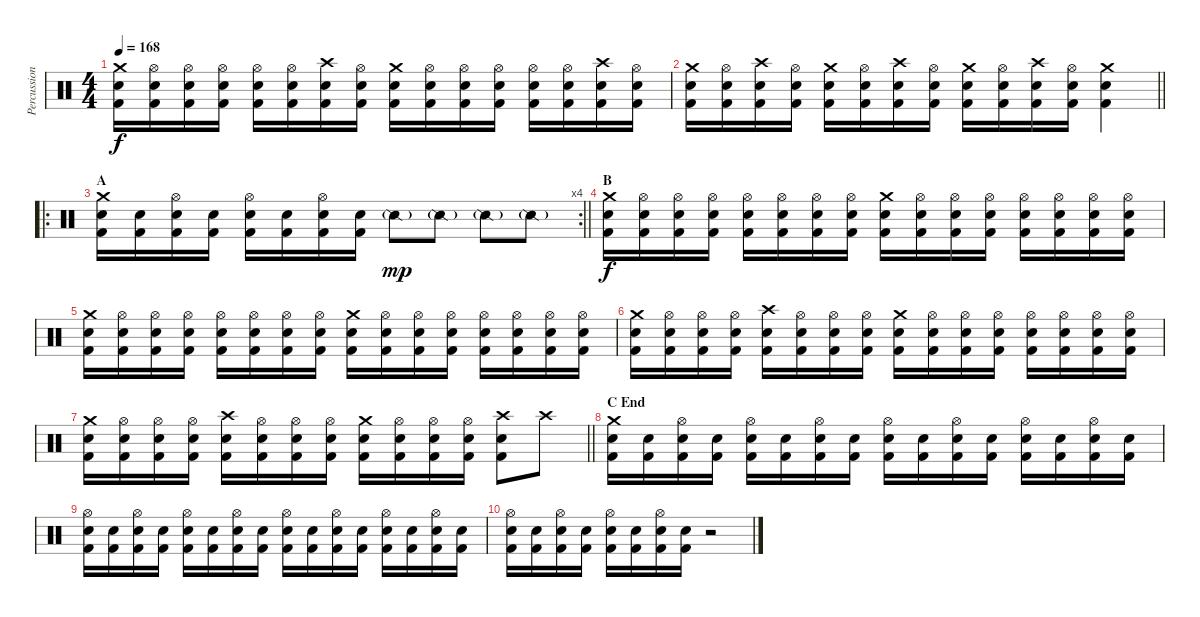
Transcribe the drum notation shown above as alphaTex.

\track ("Percussion" "Percussion") {instrument percussion}
\staff {score}
\articulation defaults
\ts (4 4)
\tempo 168
\clef neutral
\ks c
("Kick (hit) 2" "Electric Snare (hit)" "Crash medium (hit)").16{dy f} ("Kick (hit) 2" "Electric Snare (hit)" "Hi-Hat (open)").16 ("Kick (hit) 2" "Electric Snare (hit)" "Hi-Hat (open)").16 ("Kick (hit) 2" "Electric Snare (hit)" "Hi-Hat (open)").16 ("Kick (hit) 2" "Electric Snare (hit)" "Hi-Hat (open)").16 ("Kick (hit) 2" "Electric Snare (hit)" "Hi-Hat (open)").16 ("Kick (hit) 2" "Electric Snare (hit)" "Crash high (hit)").16 ("Kick (hit) 2" "Electric Snare (hit)" "Hi-Hat (open)").16 ("Kick (hit) 2" "Electric Snare (hit)" "Crash medium (hit)").16 ("Kick (hit) 2" "Electric Snare (hit)" "Hi-Hat (open)").16 ("Kick (hit) 2" "Electric Snare (hit)" "Hi-Hat (open)").16 ("Kick (hit) 2" "Electric Snare (hit)" "Hi-Hat (open)").16 ("Kick (hit) 2" "Electric Snare (hit)" "Hi-Hat (open)").16 ("Kick (hit) 2" "Electric Snare (hit)" "Hi-Hat (open)").16 ("Kick (hit) 2" "Electric Snare (hit)" "Crash high (hit)").16 ("Kick (hit) 2" "Electric Snare (hit)" "Hi-Hat (open)").16 |
\barLineRight lightlight
("Kick (hit) 2" "Electric Snare (hit)" "Crash medium (hit)").16 ("Kick (hit) 2" "Electric Snare (hit)" "Hi-Hat (open)").16 ("Kick (hit) 2" "Electric Snare (hit)" "Crash high (hit)").16 ("Kick (hit) 2" "Electric Snare (hit)" "Hi-Hat (open)").16 ("Kick (hit) 2" "Electric Snare (hit)" "Crash medium (hit)").16 ("Kick (hit) 2" "Electric Snare (hit)" "Hi-Hat (open)").16 ("Kick (hit) 2" "Electric Snare (hit)" "Crash high (hit)").16 ("Kick (hit) 2" "Electric Snare (hit)" "Hi-Hat (open)").16 ("Kick (hit) 2" "Electric Snare (hit)" "Crash medium (hit)").16 ("Kick (hit) 2" "Electric Snare (hit)" "Hi-Hat (open)").16 ("Kick (hit) 2" "Electric Snare (hit)" "Crash high (hit)").16 ("Kick (hit) 2" "Electric Snare (hit)" "Hi-Hat (open)").16 ("Kick (hit) 2" "Electric Snare (hit)" "Crash medium (hit)").4 |
\ro
\rc 4
\section ("" "A")
\barLineRight lightlight
("Kick (hit) 2" "Electric Snare (hit)" "Crash medium (hit)").16 ("Kick (hit) 2" "Electric Snare (hit)").16 ("Kick (hit) 2" "Electric Snare (hit)" "Hi-Hat (open)").16 ("Kick (hit) 2" "Electric Snare (hit)").16 ("Kick (hit) 2" "Electric Snare (hit)" "Hi-Hat (open)").16 ("Kick (hit) 2" "Electric Snare (hit)").16 ("Kick (hit) 2" "Electric Snare (hit)" "Hi-Hat (open)").16 ("Kick (hit) 2" "Electric Snare (hit)").16 "Snare (side stick) 2"{g}.8{dy mp} "Snare (side stick) 2"{g}.8 "Snare (side stick) 2"{g}.8 "Snare (side stick) 2"{g}.8 |
\section ("" "B")
("Kick (hit) 2" "Electric Snare (hit)" "Crash medium (hit)").16{dy f} ("Kick (hit) 2" "Electric Snare (hit)" "Hi-Hat (open)").16 ("Kick (hit) 2" "Electric Snare (hit)" "Hi-Hat (open)").16 ("Kick (hit) 2" "Electric Snare (hit)" "Hi-Hat (open)").16 ("Kick (hit) 2" "Electric Snare (hit)" "Hi-Hat (open)").16 ("Kick (hit) 2" "Electric Snare (hit)" "Hi-Hat (open)").16 ("Kick (hit) 2" "Electric Snare (hit)" "Hi-Hat (open)").16 ("Kick (hit) 2" "Electric Snare (hit)" "Hi-Hat (open)").16 ("Kick (hit) 2" "Electric Snare (hit)" "Crash medium (hit)").16 ("Kick (hit) 2" "Electric Snare (hit)" "Hi-Hat (open)").16 ("Kick (hit) 2" "Electric Snare (hit)" "Hi-Hat (open)").16 ("Kick (hit) 2" "Electric Snare (hit)" "Hi-Hat (open)").16 ("Kick (hit) 2" "Electric Snare (hit)" "Hi-Hat (open)").16 ("Kick (hit) 2" "Electric Snare (hit)" "Hi-Hat (open)").16 ("Kick (hit) 2" "Electric Snare (hit)" "Hi-Hat (open)").16 ("Kick (hit) 2" "Electric Snare (hit)" "Hi-Hat (open)").16 |
("Kick (hit) 2" "Electric Snare (hit)" "Crash medium (hit)").16 ("Kick (hit) 2" "Electric Snare (hit)" "Hi-Hat (open)").16 ("Kick (hit) 2" "Electric Snare (hit)" "Hi-Hat (open)").16 ("Kick (hit) 2" "Electric Snare (hit)" "Hi-Hat (open)").16 ("Kick (hit) 2" "Electric Snare (hit)" "Hi-Hat (open)").16 ("Kick (hit) 2" "Electric Snare (hit)" "Hi-Hat (open)").16 ("Kick (hit) 2" "Electric Snare (hit)" "Hi-Hat (open)").16 ("Kick (hit) 2" "Electric Snare (hit)" "Hi-Hat (open)").16 ("Kick (hit) 2" "Electric Snare (hit)" "Crash medium (hit)").16 ("Kick (hit) 2" "Electric Snare (hit)" "Hi-Hat (open)").16 ("Kick (hit) 2" "Electric Snare (hit)" "Hi-Hat (open)").16 ("Kick (hit) 2" "Electric Snare (hit)" "Hi-Hat (open)").16 ("Kick (hit) 2" "Electric Snare (hit)" "Hi-Hat (open)").16 ("Kick (hit) 2" "Electric Snare (hit)" "Hi-Hat (open)").16 ("Kick (hit) 2" "Electric Snare (hit)" "Hi-Hat (open)").16 ("Kick (hit) 2" "Electric Snare (hit)" "Hi-Hat (open)").16 |
("Kick (hit) 2" "Electric Snare (hit)" "Crash medium (hit)").16 ("Kick (hit) 2" "Electric Snare (hit)" "Hi-Hat (open)").16 ("Kick (hit) 2" "Electric Snare (hit)" "Hi-Hat (open)").16 ("Kick (hit) 2" "Electric Snare (hit)" "Hi-Hat (open)").16 ("Kick (hit) 2" "Electric Snare (hit)" "Crash high (hit)").16 ("Kick (hit) 2" "Electric Snare (hit)" "Hi-Hat (open)").16 ("Kick (hit) 2" "Electric Snare (hit)" "Hi-Hat (open)").16 ("Kick (hit) 2" "Electric Snare (hit)" "Hi-Hat (open)").16 ("Kick (hit) 2" "Electric Snare (hit)" "Crash medium (hit)").16 ("Kick (hit) 2" "Electric Snare (hit)" "Hi-Hat (open)").16 ("Kick (hit) 2" "Electric Snare (hit)" "Hi-Hat (open)").16 ("Kick (hit) 2" "Electric Snare (hit)" "Hi-Hat (open)").16 ("Kick (hit) 2" "Electric Snare (hit)" "Hi-Hat (open)").16 ("Kick (hit) 2" "Electric Snare (hit)" "Hi-Hat (open)").16 ("Kick (hit) 2" "Electric Snare (hit)" "Hi-Hat (open)").16 ("Kick (hit) 2" "Electric Snare (hit)" "Hi-Hat (open)").16 |
\barLineRight lightlight
("Kick (hit) 2" "Electric Snare (hit)" "Crash medium (hit)").16 ("Kick (hit) 2" "Electric Snare (hit)" "Hi-Hat (open)").16 ("Kick (hit) 2" "Electric Snare (hit)" "Hi-Hat (open)").16 ("Kick (hit) 2" "Electric Snare (hit)" "Hi-Hat (open)").16 ("Kick (hit) 2" "Electric Snare (hit)" "Crash high (hit)").16 ("Kick (hit) 2" "Electric Snare (hit)" "Hi-Hat (open)").16 ("Kick (hit) 2" "Electric Snare (hit)" "Hi-Hat (open)").16 ("Kick (hit) 2" "Electric Snare (hit)" "Hi-Hat (open)").16 ("Kick (hit) 2" "Electric Snare (hit)" "Crash medium (hit)").16 ("Kick (hit) 2" "Electric Snare (hit)" "Hi-Hat (open)").16 ("Kick (hit) 2" "Electric Snare (hit)" "Hi-Hat (open)").16 ("Kick (hit) 2" "Electric Snare (hit)" "Hi-Hat (open)").16 ("Kick (hit) 2" "Electric Snare (hit)" "Crash high (hit)").8 "Crash high (hit)".8 |
\section ("" "C End")
("Kick (hit) 2" "Electric Snare (hit)" "Crash medium (hit)").16 ("Kick (hit) 2" "Electric Snare (hit)").16 ("Kick (hit) 2" "Electric Snare (hit)" "Hi-Hat (open)").16 ("Kick (hit) 2" "Electric Snare (hit)").16 ("Kick (hit) 2" "Electric Snare (hit)" "Hi-Hat (open)").16 ("Kick (hit) 2" "Electric Snare (hit)").16 ("Kick (hit) 2" "Electric Snare (hit)" "Hi-Hat (open)").16 ("Kick (hit) 2" "Electric Snare (hit)").16 ("Kick (hit) 2" "Electric Snare (hit)" "Hi-Hat (open)").16 ("Kick (hit) 2" "Electric Snare (hit)").16 ("Kick (hit) 2" "Electric Snare (hit)" "Hi-Hat (open)").16 ("Kick (hit) 2" "Electric Snare (hit)").16 ("Kick (hit) 2" "Electric Snare (hit)" "Hi-Hat (open)").16 ("Kick (hit) 2" "Electric Snare (hit)").16 ("Kick (hit) 2" "Electric Snare (hit)" "Hi-Hat (open)").16 ("Kick (hit) 2" "Electric Snare (hit)").16 |
("Kick (hit) 2" "Electric Snare (hit)" "Hi-Hat (open)").16 ("Kick (hit) 2" "Electric Snare (hit)").16 ("Kick (hit) 2" "Electric Snare (hit)" "Hi-Hat (open)").16 ("Kick (hit) 2" "Electric Snare (hit)").16 ("Kick (hit) 2" "Electric Snare (hit)" "Hi-Hat (open)").16 ("Kick (hit) 2" "Electric Snare (hit)").16 ("Kick (hit) 2" "Electric Snare (hit)" "Hi-Hat (open)").16 ("Kick (hit) 2" "Electric Snare (hit)").16 ("Kick (hit) 2" "Electric Snare (hit)" "Hi-Hat (open)").16 ("Kick (hit) 2" "Electric Snare (hit)").16 ("Kick (hit) 2" "Electric Snare (hit)" "Hi-Hat (open)").16 ("Kick (hit) 2" "Electric Snare (hit)").16 ("Kick (hit) 2" "Electric Snare (hit)" "Hi-Hat (open)").16 ("Kick (hit) 2" "Electric Snare (hit)").16 ("Kick (hit) 2" "Electric Snare (hit)" "Hi-Hat (open)").16 ("Kick (hit) 2" "Electric Snare (hit)").16 |
("Kick (hit) 2" "Electric Snare (hit)" "Hi-Hat (open)").16 ("Kick (hit) 2" "Electric Snare (hit)").16 ("Kick (hit) 2" "Electric Snare (hit)" "Hi-Hat (open)").16 ("Kick (hit) 2" "Electric Snare (hit)").16 ("Kick (hit) 2" "Electric Snare (hit)" "Hi-Hat (open)").16 ("Kick (hit) 2" "Electric Snare (hit)").16 ("Kick (hit) 2" "Electric Snare (hit)" "Hi-Hat (open)").16 ("Kick (hit) 2" "Electric Snare (hit)").16 r.2
